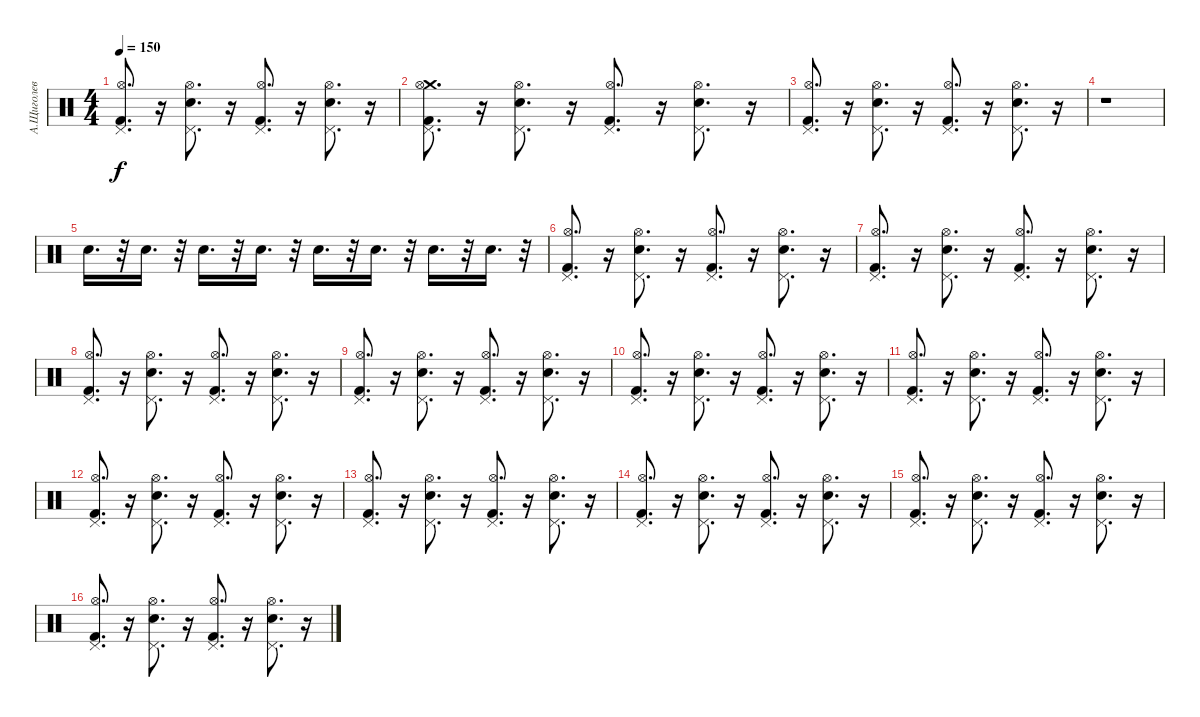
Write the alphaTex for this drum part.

\track ("А.Щиголев" "А.Щиголев") {instrument percussion}
\staff {score}
\articulation defaults
\ts (4 4)
\tempo 150
\clef neutral
\ks c
("Kick (hit) 2" "Hi-Hat (open)" "Pedal Hi-Hat (hit)").8{d dy f} r.16 ("Snare (hit) 2" "Hi-Hat (open)" "Pedal Hi-Hat (hit)").8{d} r.16 ("Kick (hit) 2" "Hi-Hat (open)" "Pedal Hi-Hat (hit)").8{d} r.16 ("Snare (hit) 2" "Hi-Hat (open)" "Pedal Hi-Hat (hit)").8{d} r.16 |
("Crash medium (hit)" "Kick (hit) 2" "Hi-Hat (open)" "Pedal Hi-Hat (hit)").8{d} r.16 ("Snare (hit) 2" "Hi-Hat (open)" "Pedal Hi-Hat (hit)").8{d} r.16 ("Kick (hit) 2" "Hi-Hat (open)" "Pedal Hi-Hat (hit)").8{d} r.16 ("Snare (hit) 2" "Hi-Hat (open)" "Pedal Hi-Hat (hit)").8{d} r.16 |
("Kick (hit) 2" "Hi-Hat (open)" "Pedal Hi-Hat (hit)").8{d} r.16 ("Snare (hit) 2" "Hi-Hat (open)" "Pedal Hi-Hat (hit)").8{d} r.16 ("Kick (hit) 2" "Hi-Hat (open)" "Pedal Hi-Hat (hit)").8{d} r.16 ("Snare (hit) 2" "Hi-Hat (open)" "Pedal Hi-Hat (hit)").8{d} r.16 |
r.1 |
"Snare (hit) 2".16{d} r.32 "Snare (hit) 2".16{d} r.32 "Snare (hit) 2".16{d} r.32 "Snare (hit) 2".16{d} r.32 "Snare (hit) 2".16{d} r.32 "Snare (hit) 2".16{d} r.32 "Snare (hit) 2".16{d} r.32 "Snare (hit) 2".16{d} r.32 |
("Kick (hit) 2" "Hi-Hat (open)" "Pedal Hi-Hat (hit)").8{d} r.16 ("Snare (hit) 2" "Hi-Hat (open)" "Pedal Hi-Hat (hit)").8{d} r.16 ("Kick (hit) 2" "Hi-Hat (open)" "Pedal Hi-Hat (hit)").8{d} r.16 ("Snare (hit) 2" "Hi-Hat (open)" "Pedal Hi-Hat (hit)").8{d} r.16 |
("Kick (hit) 2" "Hi-Hat (open)" "Pedal Hi-Hat (hit)").8{d} r.16 ("Snare (hit) 2" "Hi-Hat (open)" "Pedal Hi-Hat (hit)").8{d} r.16 ("Kick (hit) 2" "Hi-Hat (open)" "Pedal Hi-Hat (hit)").8{d} r.16 ("Snare (hit) 2" "Hi-Hat (open)" "Pedal Hi-Hat (hit)").8{d} r.16 |
("Kick (hit) 2" "Hi-Hat (open)" "Pedal Hi-Hat (hit)").8{d} r.16 ("Snare (hit) 2" "Hi-Hat (open)" "Pedal Hi-Hat (hit)").8{d} r.16 ("Kick (hit) 2" "Hi-Hat (open)" "Pedal Hi-Hat (hit)").8{d} r.16 ("Snare (hit) 2" "Hi-Hat (open)" "Pedal Hi-Hat (hit)").8{d} r.16 |
("Kick (hit) 2" "Hi-Hat (open)" "Pedal Hi-Hat (hit)").8{d} r.16 ("Snare (hit) 2" "Hi-Hat (open)" "Pedal Hi-Hat (hit)").8{d} r.16 ("Kick (hit) 2" "Hi-Hat (open)" "Pedal Hi-Hat (hit)").8{d} r.16 ("Snare (hit) 2" "Hi-Hat (open)" "Pedal Hi-Hat (hit)").8{d} r.16 |
("Kick (hit) 2" "Hi-Hat (open)" "Pedal Hi-Hat (hit)").8{d} r.16 ("Snare (hit) 2" "Hi-Hat (open)" "Pedal Hi-Hat (hit)").8{d} r.16 ("Kick (hit) 2" "Hi-Hat (open)" "Pedal Hi-Hat (hit)").8{d} r.16 ("Snare (hit) 2" "Hi-Hat (open)" "Pedal Hi-Hat (hit)").8{d} r.16 |
("Kick (hit) 2" "Hi-Hat (open)" "Pedal Hi-Hat (hit)").8{d} r.16 ("Snare (hit) 2" "Hi-Hat (open)" "Pedal Hi-Hat (hit)").8{d} r.16 ("Kick (hit) 2" "Hi-Hat (open)" "Pedal Hi-Hat (hit)").8{d} r.16 ("Snare (hit) 2" "Hi-Hat (open)" "Pedal Hi-Hat (hit)").8{d} r.16 |
("Kick (hit) 2" "Hi-Hat (open)" "Pedal Hi-Hat (hit)").8{d} r.16 ("Snare (hit) 2" "Hi-Hat (open)" "Pedal Hi-Hat (hit)").8{d} r.16 ("Kick (hit) 2" "Hi-Hat (open)" "Pedal Hi-Hat (hit)").8{d} r.16 ("Snare (hit) 2" "Hi-Hat (open)" "Pedal Hi-Hat (hit)").8{d} r.16 |
("Kick (hit) 2" "Hi-Hat (open)" "Pedal Hi-Hat (hit)").8{d} r.16 ("Snare (hit) 2" "Hi-Hat (open)" "Pedal Hi-Hat (hit)").8{d} r.16 ("Kick (hit) 2" "Hi-Hat (open)" "Pedal Hi-Hat (hit)").8{d} r.16 ("Snare (hit) 2" "Hi-Hat (open)" "Pedal Hi-Hat (hit)").8{d} r.16 |
("Kick (hit) 2" "Hi-Hat (open)" "Pedal Hi-Hat (hit)").8{d} r.16 ("Snare (hit) 2" "Hi-Hat (open)" "Pedal Hi-Hat (hit)").8{d} r.16 ("Kick (hit) 2" "Hi-Hat (open)" "Pedal Hi-Hat (hit)").8{d} r.16 ("Snare (hit) 2" "Hi-Hat (open)" "Pedal Hi-Hat (hit)").8{d} r.16 |
("Kick (hit) 2" "Hi-Hat (open)" "Pedal Hi-Hat (hit)").8{d} r.16 ("Snare (hit) 2" "Hi-Hat (open)" "Pedal Hi-Hat (hit)").8{d} r.16 ("Kick (hit) 2" "Hi-Hat (open)" "Pedal Hi-Hat (hit)").8{d} r.16 ("Snare (hit) 2" "Hi-Hat (open)" "Pedal Hi-Hat (hit)").8{d} r.16 |
("Kick (hit) 2" "Hi-Hat (open)" "Pedal Hi-Hat (hit)").8{d} r.16 ("Snare (hit) 2" "Hi-Hat (open)" "Pedal Hi-Hat (hit)").8{d} r.16 ("Kick (hit) 2" "Hi-Hat (open)" "Pedal Hi-Hat (hit)").8{d} r.16 ("Snare (hit) 2" "Hi-Hat (open)" "Pedal Hi-Hat (hit)").8{d} r.16
